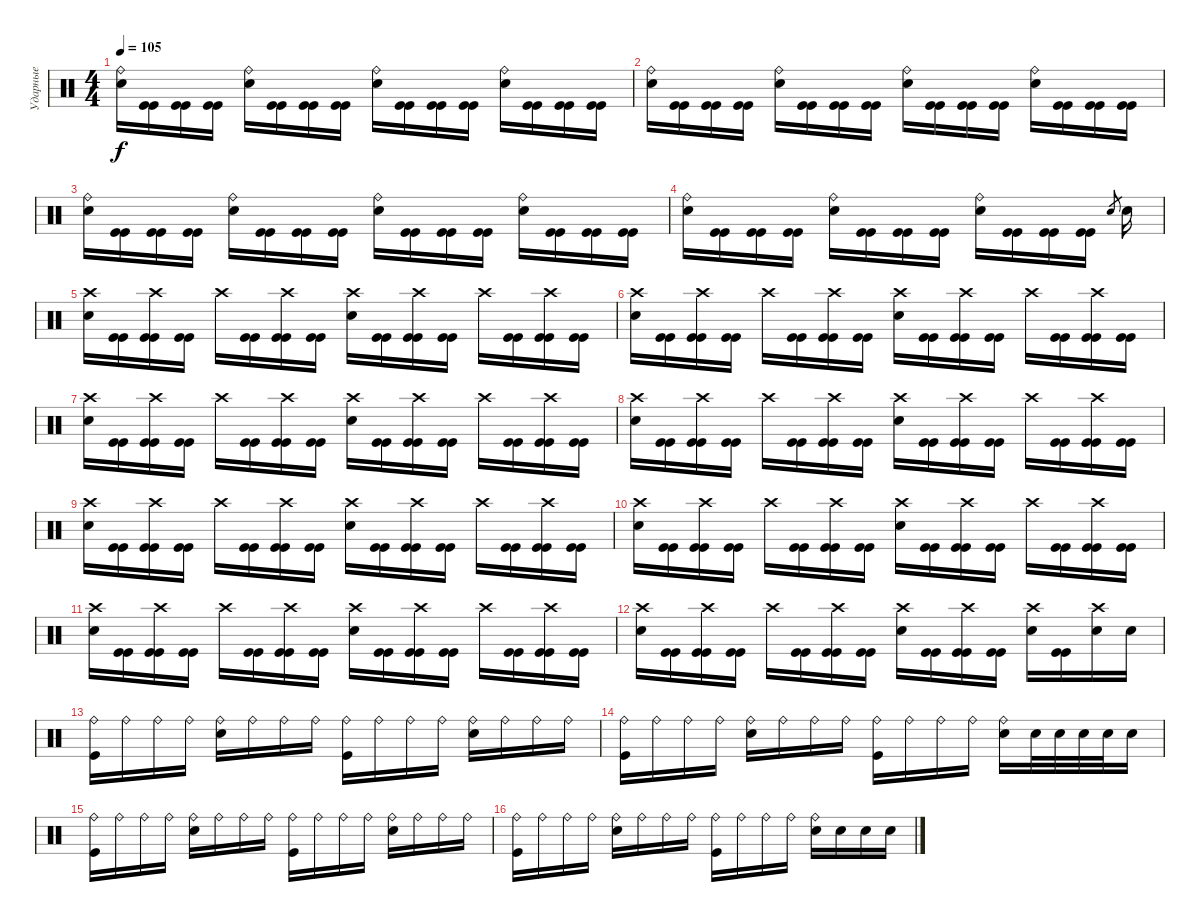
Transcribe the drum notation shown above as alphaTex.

\track ("Ударные" "Ударные") {instrument percussion}
\staff {score}
\articulation defaults
\ts (4 4)
\tempo 105
\clef neutral
\ks c
("Ride (bell)" "Electric Snare (hit)").16{dy f} ("Kick (hit)" "Kick (hit)").16 ("Kick (hit)" "Kick (hit)").16 ("Kick (hit)" "Kick (hit)").16 ("Ride (bell)" "Electric Snare (hit)").16 ("Kick (hit)" "Kick (hit)").16 ("Kick (hit)" "Kick (hit)").16 ("Kick (hit)" "Kick (hit)").16 ("Ride (bell)" "Electric Snare (hit)").16 ("Kick (hit)" "Kick (hit)").16 ("Kick (hit)" "Kick (hit)").16 ("Kick (hit)" "Kick (hit)").16 ("Ride (bell)" "Electric Snare (hit)").16 ("Kick (hit)" "Kick (hit)").16 ("Kick (hit)" "Kick (hit)").16 ("Kick (hit)" "Kick (hit)").16 |
("Ride (bell)" "Electric Snare (hit)").16 ("Kick (hit)" "Kick (hit)").16 ("Kick (hit)" "Kick (hit)").16 ("Kick (hit)" "Kick (hit)").16 ("Ride (bell)" "Electric Snare (hit)").16 ("Kick (hit)" "Kick (hit)").16 ("Kick (hit)" "Kick (hit)").16 ("Kick (hit)" "Kick (hit)").16 ("Ride (bell)" "Electric Snare (hit)").16 ("Kick (hit)" "Kick (hit)").16 ("Kick (hit)" "Kick (hit)").16 ("Kick (hit)" "Kick (hit)").16 ("Ride (bell)" "Electric Snare (hit)").16 ("Kick (hit)" "Kick (hit)").16 ("Kick (hit)" "Kick (hit)").16 ("Kick (hit)" "Kick (hit)").16 |
("Ride (bell)" "Electric Snare (hit)").16 ("Kick (hit)" "Kick (hit)").16 ("Kick (hit)" "Kick (hit)").16 ("Kick (hit)" "Kick (hit)").16 ("Ride (bell)" "Electric Snare (hit)").16 ("Kick (hit)" "Kick (hit)").16 ("Kick (hit)" "Kick (hit)").16 ("Kick (hit)" "Kick (hit)").16 ("Ride (bell)" "Electric Snare (hit)").16 ("Kick (hit)" "Kick (hit)").16 ("Kick (hit)" "Kick (hit)").16 ("Kick (hit)" "Kick (hit)").16 ("Ride (bell)" "Electric Snare (hit)").16 ("Kick (hit)" "Kick (hit)").16 ("Kick (hit)" "Kick (hit)").16 ("Kick (hit)" "Kick (hit)").16 |
("Ride (bell)" "Electric Snare (hit)").16 ("Kick (hit)" "Kick (hit)").16 ("Kick (hit)" "Kick (hit)").16 ("Kick (hit)" "Kick (hit)").16 ("Ride (bell)" "Electric Snare (hit)").16 ("Kick (hit)" "Kick (hit)").16 ("Kick (hit)" "Kick (hit)").16 ("Kick (hit)" "Kick (hit)").16 ("Ride (bell)" "Electric Snare (hit)").16 ("Kick (hit)" "Kick (hit)").16 ("Kick (hit)" "Kick (hit)").16 ("Kick (hit)" "Kick (hit)").16 "Electric Snare (hit)".8{gr} "Electric Snare (hit)".16 |
("Crash high (hit)" "Electric Snare (hit)").16 ("Kick (hit)" "Kick (hit)").16 ("Crash high (hit)" "Kick (hit)" "Kick (hit)").16 ("Kick (hit)" "Kick (hit)").16 "Crash high (hit)".16 ("Kick (hit)" "Kick (hit)").16 ("Crash high (hit)" "Kick (hit)" "Kick (hit)").16 ("Kick (hit)" "Kick (hit)").16 ("Crash high (hit)" "Electric Snare (hit)").16 ("Kick (hit)" "Kick (hit)").16 ("Crash high (hit)" "Kick (hit)" "Kick (hit)").16 ("Kick (hit)" "Kick (hit)").16 "Crash high (hit)".16 ("Kick (hit)" "Kick (hit)").16 ("Crash high (hit)" "Kick (hit)" "Kick (hit)").16 ("Kick (hit)" "Kick (hit)").16 |
("Crash high (hit)" "Electric Snare (hit)").16 ("Kick (hit)" "Kick (hit)").16 ("Crash high (hit)" "Kick (hit)" "Kick (hit)").16 ("Kick (hit)" "Kick (hit)").16 "Crash high (hit)".16 ("Kick (hit)" "Kick (hit)").16 ("Crash high (hit)" "Kick (hit)" "Kick (hit)").16 ("Kick (hit)" "Kick (hit)").16 ("Crash high (hit)" "Electric Snare (hit)").16 ("Kick (hit)" "Kick (hit)").16 ("Crash high (hit)" "Kick (hit)" "Kick (hit)").16 ("Kick (hit)" "Kick (hit)").16 "Crash high (hit)".16 ("Kick (hit)" "Kick (hit)").16 ("Crash high (hit)" "Kick (hit)" "Kick (hit)").16 ("Kick (hit)" "Kick (hit)").16 |
("Crash high (hit)" "Electric Snare (hit)").16 ("Kick (hit)" "Kick (hit)").16 ("Crash high (hit)" "Kick (hit)" "Kick (hit)").16 ("Kick (hit)" "Kick (hit)").16 "Crash high (hit)".16 ("Kick (hit)" "Kick (hit)").16 ("Crash high (hit)" "Kick (hit)" "Kick (hit)").16 ("Kick (hit)" "Kick (hit)").16 ("Crash high (hit)" "Electric Snare (hit)").16 ("Kick (hit)" "Kick (hit)").16 ("Crash high (hit)" "Kick (hit)" "Kick (hit)").16 ("Kick (hit)" "Kick (hit)").16 "Crash high (hit)".16 ("Kick (hit)" "Kick (hit)").16 ("Crash high (hit)" "Kick (hit)" "Kick (hit)").16 ("Kick (hit)" "Kick (hit)").16 |
("Crash high (hit)" "Electric Snare (hit)").16 ("Kick (hit)" "Kick (hit)").16 ("Crash high (hit)" "Kick (hit)" "Kick (hit)").16 ("Kick (hit)" "Kick (hit)").16 "Crash high (hit)".16 ("Kick (hit)" "Kick (hit)").16 ("Crash high (hit)" "Kick (hit)" "Kick (hit)").16 ("Kick (hit)" "Kick (hit)").16 ("Crash high (hit)" "Electric Snare (hit)").16 ("Kick (hit)" "Kick (hit)").16 ("Crash high (hit)" "Kick (hit)" "Kick (hit)").16 ("Kick (hit)" "Kick (hit)").16 "Crash high (hit)".16 ("Kick (hit)" "Kick (hit)").16 ("Crash high (hit)" "Kick (hit)" "Kick (hit)").16 ("Kick (hit)" "Kick (hit)").16 |
("Crash high (hit)" "Electric Snare (hit)").16 ("Kick (hit)" "Kick (hit)").16 ("Crash high (hit)" "Kick (hit)" "Kick (hit)").16 ("Kick (hit)" "Kick (hit)").16 "Crash high (hit)".16 ("Kick (hit)" "Kick (hit)").16 ("Crash high (hit)" "Kick (hit)" "Kick (hit)").16 ("Kick (hit)" "Kick (hit)").16 ("Crash high (hit)" "Electric Snare (hit)").16 ("Kick (hit)" "Kick (hit)").16 ("Crash high (hit)" "Kick (hit)" "Kick (hit)").16 ("Kick (hit)" "Kick (hit)").16 "Crash high (hit)".16 ("Kick (hit)" "Kick (hit)").16 ("Crash high (hit)" "Kick (hit)" "Kick (hit)").16 ("Kick (hit)" "Kick (hit)").16 |
("Crash high (hit)" "Electric Snare (hit)").16 ("Kick (hit)" "Kick (hit)").16 ("Crash high (hit)" "Kick (hit)" "Kick (hit)").16 ("Kick (hit)" "Kick (hit)").16 "Crash high (hit)".16 ("Kick (hit)" "Kick (hit)").16 ("Crash high (hit)" "Kick (hit)" "Kick (hit)").16 ("Kick (hit)" "Kick (hit)").16 ("Crash high (hit)" "Electric Snare (hit)").16 ("Kick (hit)" "Kick (hit)").16 ("Crash high (hit)" "Kick (hit)" "Kick (hit)").16 ("Kick (hit)" "Kick (hit)").16 "Crash high (hit)".16 ("Kick (hit)" "Kick (hit)").16 ("Crash high (hit)" "Kick (hit)" "Kick (hit)").16 ("Kick (hit)" "Kick (hit)").16 |
("Crash high (hit)" "Electric Snare (hit)").16 ("Kick (hit)" "Kick (hit)").16 ("Crash high (hit)" "Kick (hit)" "Kick (hit)").16 ("Kick (hit)" "Kick (hit)").16 "Crash high (hit)".16 ("Kick (hit)" "Kick (hit)").16 ("Crash high (hit)" "Kick (hit)" "Kick (hit)").16 ("Kick (hit)" "Kick (hit)").16 ("Crash high (hit)" "Electric Snare (hit)").16 ("Kick (hit)" "Kick (hit)").16 ("Crash high (hit)" "Kick (hit)" "Kick (hit)").16 ("Kick (hit)" "Kick (hit)").16 "Crash high (hit)".16 ("Kick (hit)" "Kick (hit)").16 ("Crash high (hit)" "Kick (hit)" "Kick (hit)").16 ("Kick (hit)" "Kick (hit)").16 |
("Crash high (hit)" "Electric Snare (hit)").16 ("Kick (hit)" "Kick (hit)").16 ("Crash high (hit)" "Kick (hit)" "Kick (hit)").16 ("Kick (hit)" "Kick (hit)").16 "Crash high (hit)".16 ("Kick (hit)" "Kick (hit)").16 ("Crash high (hit)" "Kick (hit)" "Kick (hit)").16 ("Kick (hit)" "Kick (hit)").16 ("Crash high (hit)" "Electric Snare (hit)").16 ("Kick (hit)" "Kick (hit)").16 ("Crash high (hit)" "Kick (hit)" "Kick (hit)").16 ("Kick (hit)" "Kick (hit)").16 ("Crash high (hit)" "Electric Snare (hit)").16 ("Kick (hit)" "Kick (hit)").16 ("Crash high (hit)" "Electric Snare (hit)").16 "Electric Snare (hit)".16 |
("Ride (bell)" "Kick (hit)").16 "Ride (bell)".16 "Ride (bell)".16 "Ride (bell)".16 ("Ride (bell)" "Electric Snare (hit)").16 "Ride (bell)".16 "Ride (bell)".16 "Ride (bell)".16 ("Ride (bell)" "Kick (hit)").16 "Ride (bell)".16 "Ride (bell)".16 "Ride (bell)".16 ("Ride (bell)" "Electric Snare (hit)").16 "Ride (bell)".16 "Ride (bell)".16 "Ride (bell)".16 |
("Ride (bell)" "Kick (hit)").16 "Ride (bell)".16 "Ride (bell)".16 "Ride (bell)".16 ("Ride (bell)" "Electric Snare (hit)").16 "Ride (bell)".16 "Ride (bell)".16 "Ride (bell)".16 ("Ride (bell)" "Kick (hit)").16 "Ride (bell)".16 "Ride (bell)".16 "Ride (bell)".16 ("Ride (bell)" "Electric Snare (hit)").16 "Electric Snare (hit)".32 "Electric Snare (hit)".32 "Electric Snare (hit)".32 "Electric Snare (hit)".32 "Electric Snare (hit)".16 |
("Ride (bell)" "Kick (hit)").16 "Ride (bell)".16 "Ride (bell)".16 "Ride (bell)".16 ("Ride (bell)" "Electric Snare (hit)").16 "Ride (bell)".16 "Ride (bell)".16 "Ride (bell)".16 ("Ride (bell)" "Kick (hit)").16 "Ride (bell)".16 "Ride (bell)".16 "Ride (bell)".16 ("Ride (bell)" "Electric Snare (hit)").16 "Ride (bell)".16 "Ride (bell)".16 "Ride (bell)".16 |
("Ride (bell)" "Kick (hit)").16 "Ride (bell)".16 "Ride (bell)".16 "Ride (bell)".16 ("Ride (bell)" "Electric Snare (hit)").16 "Ride (bell)".16 "Ride (bell)".16 "Ride (bell)".16 ("Ride (bell)" "Kick (hit)").16 "Ride (bell)".16 "Ride (bell)".16 "Ride (bell)".16 ("Ride (bell)" "Electric Snare (hit)").16 "Electric Snare (hit)".16 "Electric Snare (hit)".16 "Electric Snare (hit)".16
